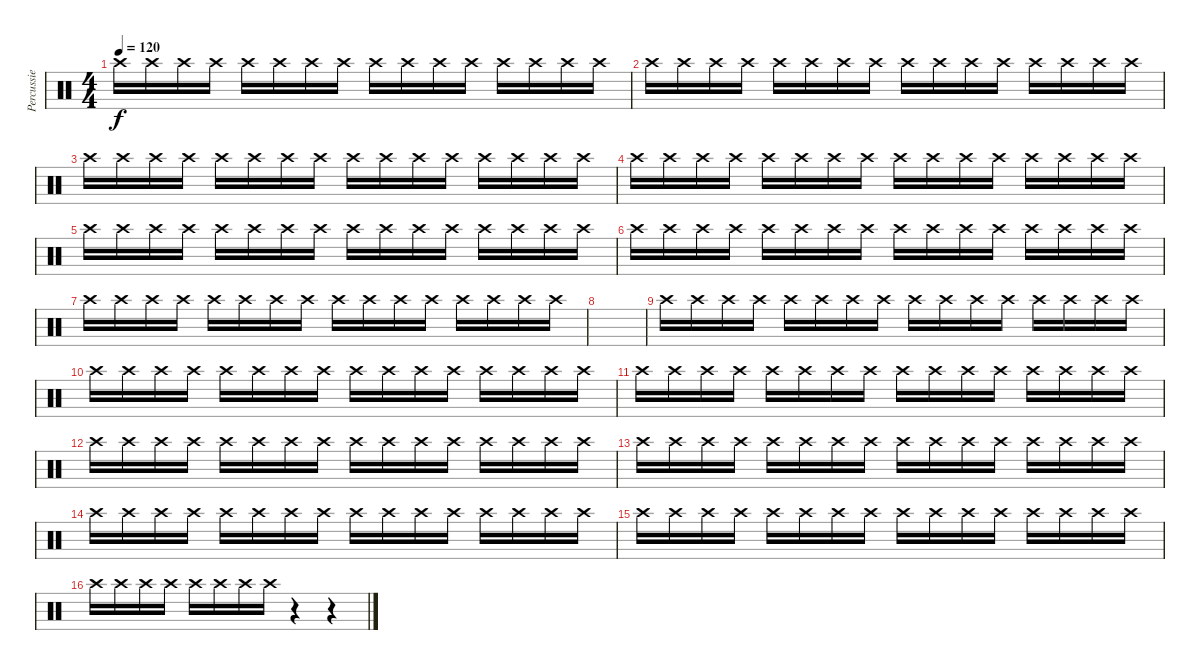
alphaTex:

\track ("Percussie" "Percussie") {instrument percussion}
\staff {score}
\articulation defaults
\ts (4 4)
\tempo 120
\clef neutral
\ks c "Crash high (hit)".16{dy f} "Crash high (hit)".16 "Crash high (hit)".16 "Crash high (hit)".16 "Crash high (hit)".16 "Crash high (hit)".16 "Crash high (hit)".16 "Crash high (hit)".16 "Crash high (hit)".16 "Crash high (hit)".16 "Crash high (hit)".16 "Crash high (hit)".16 "Crash high (hit)".16 "Crash high (hit)".16 "Crash high (hit)".16 "Crash high (hit)".16
|
"Crash high (hit)".16 "Crash high (hit)".16 "Crash high (hit)".16 "Crash high (hit)".16 "Crash high (hit)".16 "Crash high (hit)".16 "Crash high (hit)".16 "Crash high (hit)".16 "Crash high (hit)".16 "Crash high (hit)".16 "Crash high (hit)".16 "Crash high (hit)".16 "Crash high (hit)".16 "Crash high (hit)".16 "Crash high (hit)".16 "Crash high (hit)".16 |
"Crash high (hit)".16 "Crash high (hit)".16 "Crash high (hit)".16 "Crash high (hit)".16 "Crash high (hit)".16 "Crash high (hit)".16 "Crash high (hit)".16 "Crash high (hit)".16 "Crash high (hit)".16 "Crash high (hit)".16 "Crash high (hit)".16 "Crash high (hit)".16 "Crash high (hit)".16 "Crash high (hit)".16 "Crash high (hit)".16 "Crash high (hit)".16 |
"Crash high (hit)".16 "Crash high (hit)".16 "Crash high (hit)".16 "Crash high (hit)".16 "Crash high (hit)".16 "Crash high (hit)".16 "Crash high (hit)".16 "Crash high (hit)".16 "Crash high (hit)".16 "Crash high (hit)".16 "Crash high (hit)".16 "Crash high (hit)".16 "Crash high (hit)".16 "Crash high (hit)".16 "Crash high (hit)".16 "Crash high (hit)".16 |
"Crash high (hit)".16 "Crash high (hit)".16 "Crash high (hit)".16 "Crash high (hit)".16 "Crash high (hit)".16 "Crash high (hit)".16 "Crash high (hit)".16 "Crash high (hit)".16 "Crash high (hit)".16 "Crash high (hit)".16 "Crash high (hit)".16 "Crash high (hit)".16 "Crash high (hit)".16 "Crash high (hit)".16 "Crash high (hit)".16 "Crash high (hit)".16 |
"Crash high (hit)".16 "Crash high (hit)".16 "Crash high (hit)".16 "Crash high (hit)".16 "Crash high (hit)".16 "Crash high (hit)".16 "Crash high (hit)".16 "Crash high (hit)".16 "Crash high (hit)".16 "Crash high (hit)".16 "Crash high (hit)".16 "Crash high (hit)".16 "Crash high (hit)".16 "Crash high (hit)".16 "Crash high (hit)".16 "Crash high (hit)".16 |
"Crash high (hit)".16 "Crash high (hit)".16 "Crash high (hit)".16 "Crash high (hit)".16 "Crash high (hit)".16 "Crash high (hit)".16 "Crash high (hit)".16 "Crash high (hit)".16 "Crash high (hit)".16 "Crash high (hit)".16 "Crash high (hit)".16 "Crash high (hit)".16 "Crash high (hit)".16 "Crash high (hit)".16 "Crash high (hit)".16 "Crash high (hit)".16 |
|
"Crash high (hit)".16 "Crash high (hit)".16 "Crash high (hit)".16 "Crash high (hit)".16 "Crash high (hit)".16 "Crash high (hit)".16 "Crash high (hit)".16 "Crash high (hit)".16 "Crash high (hit)".16 "Crash high (hit)".16 "Crash high (hit)".16 "Crash high (hit)".16 "Crash high (hit)".16 "Crash high (hit)".16 "Crash high (hit)".16 "Crash high (hit)".16 |
"Crash high (hit)".16 "Crash high (hit)".16 "Crash high (hit)".16 "Crash high (hit)".16 "Crash high (hit)".16 "Crash high (hit)".16 "Crash high (hit)".16 "Crash high (hit)".16 "Crash high (hit)".16 "Crash high (hit)".16 "Crash high (hit)".16 "Crash high (hit)".16 "Crash high (hit)".16 "Crash high (hit)".16 "Crash high (hit)".16 "Crash high (hit)".16 |
"Crash high (hit)".16 "Crash high (hit)".16 "Crash high (hit)".16 "Crash high (hit)".16 "Crash high (hit)".16 "Crash high (hit)".16 "Crash high (hit)".16 "Crash high (hit)".16 "Crash high (hit)".16 "Crash high (hit)".16 "Crash high (hit)".16 "Crash high (hit)".16 "Crash high (hit)".16 "Crash high (hit)".16 "Crash high (hit)".16 "Crash high (hit)".16 |
"Crash high (hit)".16 "Crash high (hit)".16 "Crash high (hit)".16 "Crash high (hit)".16 "Crash high (hit)".16 "Crash high (hit)".16 "Crash high (hit)".16 "Crash high (hit)".16 "Crash high (hit)".16 "Crash high (hit)".16 "Crash high (hit)".16 "Crash high (hit)".16 "Crash high (hit)".16 "Crash high (hit)".16 "Crash high (hit)".16 "Crash high (hit)".16 |
"Crash high (hit)".16 "Crash high (hit)".16 "Crash high (hit)".16 "Crash high (hit)".16 "Crash high (hit)".16 "Crash high (hit)".16 "Crash high (hit)".16 "Crash high (hit)".16 "Crash high (hit)".16 "Crash high (hit)".16 "Crash high (hit)".16 "Crash high (hit)".16 "Crash high (hit)".16 "Crash high (hit)".16 "Crash high (hit)".16 "Crash high (hit)".16 |
"Crash high (hit)".16 "Crash high (hit)".16 "Crash high (hit)".16 "Crash high (hit)".16 "Crash high (hit)".16 "Crash high (hit)".16 "Crash high (hit)".16 "Crash high (hit)".16 "Crash high (hit)".16 "Crash high (hit)".16 "Crash high (hit)".16 "Crash high (hit)".16 "Crash high (hit)".16 "Crash high (hit)".16 "Crash high (hit)".16 "Crash high (hit)".16 |
"Crash high (hit)".16 "Crash high (hit)".16 "Crash high (hit)".16 "Crash high (hit)".16 "Crash high (hit)".16 "Crash high (hit)".16 "Crash high (hit)".16 "Crash high (hit)".16 "Crash high (hit)".16 "Crash high (hit)".16 "Crash high (hit)".16 "Crash high (hit)".16 "Crash high (hit)".16 "Crash high (hit)".16 "Crash high (hit)".16 "Crash high (hit)".16 |
"Crash high (hit)".16 "Crash high (hit)".16 "Crash high (hit)".16 "Crash high (hit)".16 "Crash high (hit)".16 "Crash high (hit)".16 "Crash high (hit)".16 "Crash high (hit)".16 r.4 r.4
